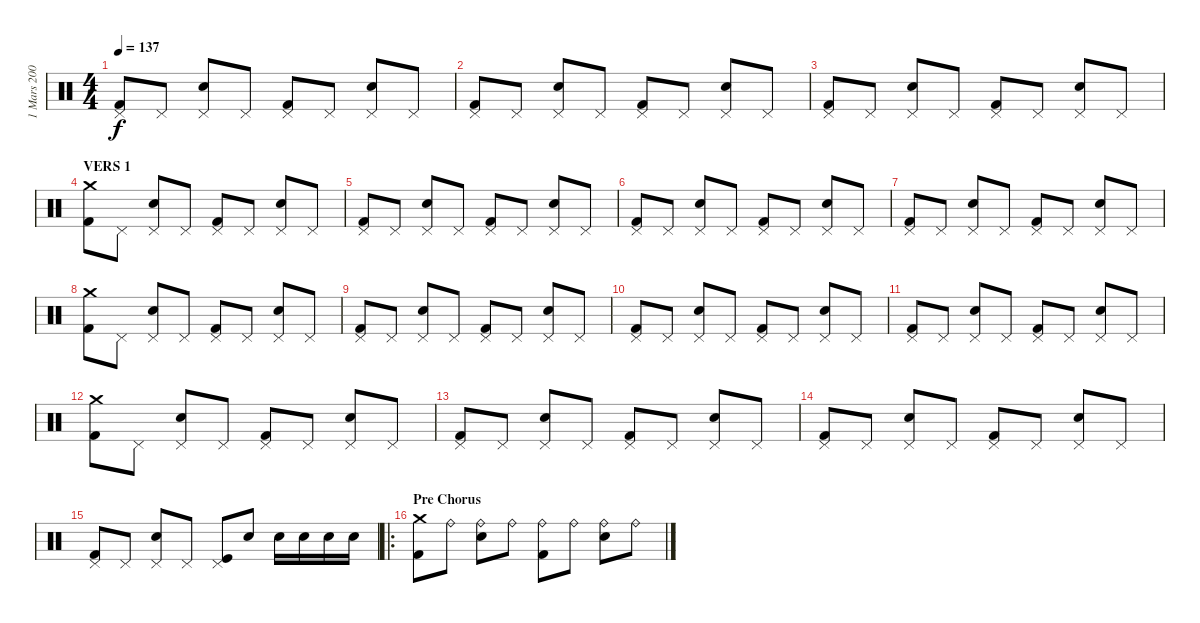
\track ("1 Mars 2004" "1 Mars 200") {instrument percussion}
\staff {score}
\articulation defaults
\ts (4 4)
\tempo 137
\clef neutral
\ks c
("Pedal Hi-Hat (hit)" "Kick (hit) 2").8{dy f} "Pedal Hi-Hat (hit)".8 ("Pedal Hi-Hat (hit)" "Electric Snare (hit)").8 "Pedal Hi-Hat (hit)".8 ("Pedal Hi-Hat (hit)" "Kick (hit) 2").8 "Pedal Hi-Hat (hit)".8 ("Pedal Hi-Hat (hit)" "Electric Snare (hit)").8 "Pedal Hi-Hat (hit)".8 |
("Pedal Hi-Hat (hit)" "Kick (hit) 2").8 "Pedal Hi-Hat (hit)".8 ("Pedal Hi-Hat (hit)" "Electric Snare (hit)").8 "Pedal Hi-Hat (hit)".8 ("Pedal Hi-Hat (hit)" "Kick (hit) 2").8 "Pedal Hi-Hat (hit)".8 ("Pedal Hi-Hat (hit)" "Electric Snare (hit)").8 "Pedal Hi-Hat (hit)".8 |
("Pedal Hi-Hat (hit)" "Kick (hit) 2").8 "Pedal Hi-Hat (hit)".8 ("Pedal Hi-Hat (hit)" "Electric Snare (hit)").8 "Pedal Hi-Hat (hit)".8 ("Pedal Hi-Hat (hit)" "Kick (hit) 2").8 "Pedal Hi-Hat (hit)".8 ("Pedal Hi-Hat (hit)" "Electric Snare (hit)").8 "Pedal Hi-Hat (hit)".8 |
\section ("" "VERS 1")
("Crash medium (hit)" "Kick (hit) 2").8 "Pedal Hi-Hat (hit)".8 ("Pedal Hi-Hat (hit)" "Electric Snare (hit)").8 "Pedal Hi-Hat (hit)".8 ("Pedal Hi-Hat (hit)" "Kick (hit) 2").8 "Pedal Hi-Hat (hit)".8 ("Pedal Hi-Hat (hit)" "Electric Snare (hit)").8 "Pedal Hi-Hat (hit)".8 |
("Pedal Hi-Hat (hit)" "Kick (hit) 2").8 "Pedal Hi-Hat (hit)".8 ("Pedal Hi-Hat (hit)" "Electric Snare (hit)").8 "Pedal Hi-Hat (hit)".8 ("Pedal Hi-Hat (hit)" "Kick (hit) 2").8 "Pedal Hi-Hat (hit)".8 ("Pedal Hi-Hat (hit)" "Electric Snare (hit)").8 "Pedal Hi-Hat (hit)".8 |
("Pedal Hi-Hat (hit)" "Kick (hit) 2").8 "Pedal Hi-Hat (hit)".8 ("Pedal Hi-Hat (hit)" "Electric Snare (hit)").8 "Pedal Hi-Hat (hit)".8 ("Pedal Hi-Hat (hit)" "Kick (hit) 2").8 "Pedal Hi-Hat (hit)".8 ("Pedal Hi-Hat (hit)" "Electric Snare (hit)").8 "Pedal Hi-Hat (hit)".8 |
("Pedal Hi-Hat (hit)" "Kick (hit) 2").8 "Pedal Hi-Hat (hit)".8 ("Pedal Hi-Hat (hit)" "Electric Snare (hit)").8 "Pedal Hi-Hat (hit)".8 ("Pedal Hi-Hat (hit)" "Kick (hit) 2").8 "Pedal Hi-Hat (hit)".8 ("Pedal Hi-Hat (hit)" "Electric Snare (hit)").8 "Pedal Hi-Hat (hit)".8 |
("Crash medium (hit)" "Kick (hit) 2").8 "Pedal Hi-Hat (hit)".8 ("Pedal Hi-Hat (hit)" "Electric Snare (hit)").8 "Pedal Hi-Hat (hit)".8 ("Pedal Hi-Hat (hit)" "Kick (hit) 2").8 "Pedal Hi-Hat (hit)".8 ("Pedal Hi-Hat (hit)" "Electric Snare (hit)").8 "Pedal Hi-Hat (hit)".8 |
("Pedal Hi-Hat (hit)" "Kick (hit) 2").8 "Pedal Hi-Hat (hit)".8 ("Pedal Hi-Hat (hit)" "Electric Snare (hit)").8 "Pedal Hi-Hat (hit)".8 ("Pedal Hi-Hat (hit)" "Kick (hit) 2").8 "Pedal Hi-Hat (hit)".8 ("Pedal Hi-Hat (hit)" "Electric Snare (hit)").8 "Pedal Hi-Hat (hit)".8 |
("Pedal Hi-Hat (hit)" "Kick (hit) 2").8 "Pedal Hi-Hat (hit)".8 ("Pedal Hi-Hat (hit)" "Electric Snare (hit)").8 "Pedal Hi-Hat (hit)".8 ("Pedal Hi-Hat (hit)" "Kick (hit) 2").8 "Pedal Hi-Hat (hit)".8 ("Pedal Hi-Hat (hit)" "Electric Snare (hit)").8 "Pedal Hi-Hat (hit)".8 |
("Pedal Hi-Hat (hit)" "Kick (hit) 2").8 "Pedal Hi-Hat (hit)".8 ("Pedal Hi-Hat (hit)" "Electric Snare (hit)").8 "Pedal Hi-Hat (hit)".8 ("Pedal Hi-Hat (hit)" "Kick (hit) 2").8 "Pedal Hi-Hat (hit)".8 ("Pedal Hi-Hat (hit)" "Electric Snare (hit)").8 "Pedal Hi-Hat (hit)".8 |
("Crash medium (hit)" "Kick (hit) 2").8 "Pedal Hi-Hat (hit)".8 ("Pedal Hi-Hat (hit)" "Electric Snare (hit)").8 "Pedal Hi-Hat (hit)".8 ("Pedal Hi-Hat (hit)" "Kick (hit) 2").8 "Pedal Hi-Hat (hit)".8 ("Pedal Hi-Hat (hit)" "Electric Snare (hit)").8 "Pedal Hi-Hat (hit)".8 |
("Pedal Hi-Hat (hit)" "Kick (hit) 2").8 "Pedal Hi-Hat (hit)".8 ("Pedal Hi-Hat (hit)" "Electric Snare (hit)").8 "Pedal Hi-Hat (hit)".8 ("Pedal Hi-Hat (hit)" "Kick (hit) 2").8 "Pedal Hi-Hat (hit)".8 ("Pedal Hi-Hat (hit)" "Electric Snare (hit)").8 "Pedal Hi-Hat (hit)".8 |
("Pedal Hi-Hat (hit)" "Kick (hit) 2").8 "Pedal Hi-Hat (hit)".8 ("Pedal Hi-Hat (hit)" "Electric Snare (hit)").8 "Pedal Hi-Hat (hit)".8 ("Pedal Hi-Hat (hit)" "Kick (hit) 2").8 "Pedal Hi-Hat (hit)".8 ("Pedal Hi-Hat (hit)" "Electric Snare (hit)").8 "Pedal Hi-Hat (hit)".8 |
("Pedal Hi-Hat (hit)" "Kick (hit) 2").8 "Pedal Hi-Hat (hit)".8 ("Pedal Hi-Hat (hit)" "Electric Snare (hit)").8 "Pedal Hi-Hat (hit)".8 ("Pedal Hi-Hat (hit)" "Kick (hit)").8 "Electric Snare (hit)".8 "Electric Snare (hit)".16 "Electric Snare (hit)".16 "Electric Snare (hit)".16 "Electric Snare (hit)".16 |
\ro
\section ("" "Pre Chorus")
("Crash medium (hit)" "Kick (hit) 2").8 "Ride (bell)".8 ("Ride (bell)" "Electric Snare (hit)").8 "Ride (bell)".8 ("Ride (bell)" "Kick (hit) 2").8 "Ride (bell)".8 ("Ride (bell)" "Electric Snare (hit)").8 "Ride (bell)".8
